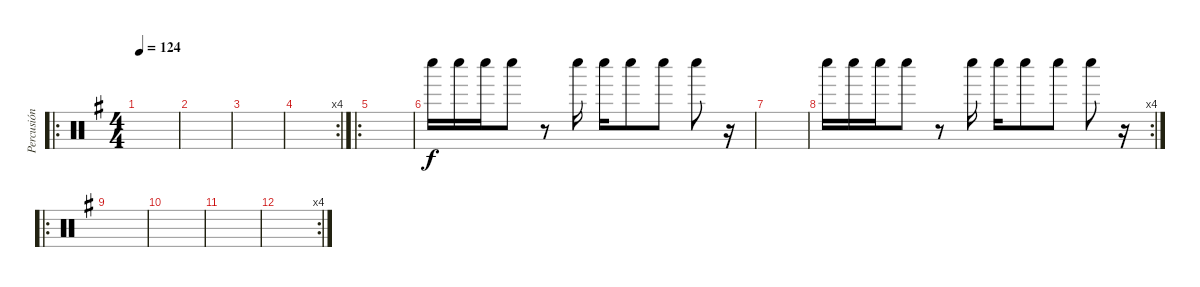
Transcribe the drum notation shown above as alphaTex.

\track ("Percusión" "Percusión") {instrument percussion}
\staff {score}
\articulation defaults
\ro
\ts (4 4)
\tempo 124
\clef neutral
\ks g
|
|
|
\rc 4
|
\ro
|
"Whistle low (hit)".16 "Whistle low (hit)".16 "Whistle low (hit)".16 "Whistle low (hit)".8 r.8 "Whistle low (hit)".16 "Whistle low (hit)".16 "Whistle low (hit)".8 "Whistle low (hit)".8 "Whistle low (hit)".8 r.16 |
|
\rc 4 "Whistle low (hit)".16 "Whistle low (hit)".16 "Whistle low (hit)".16 "Whistle low (hit)".8
r.8 "Whistle low (hit)".16 "Whistle low (hit)".16 "Whistle low (hit)".8 "Whistle low (hit)".8 "Whistle low (hit)".8 r.16 |
\ro
|
|
|
\rc 4
